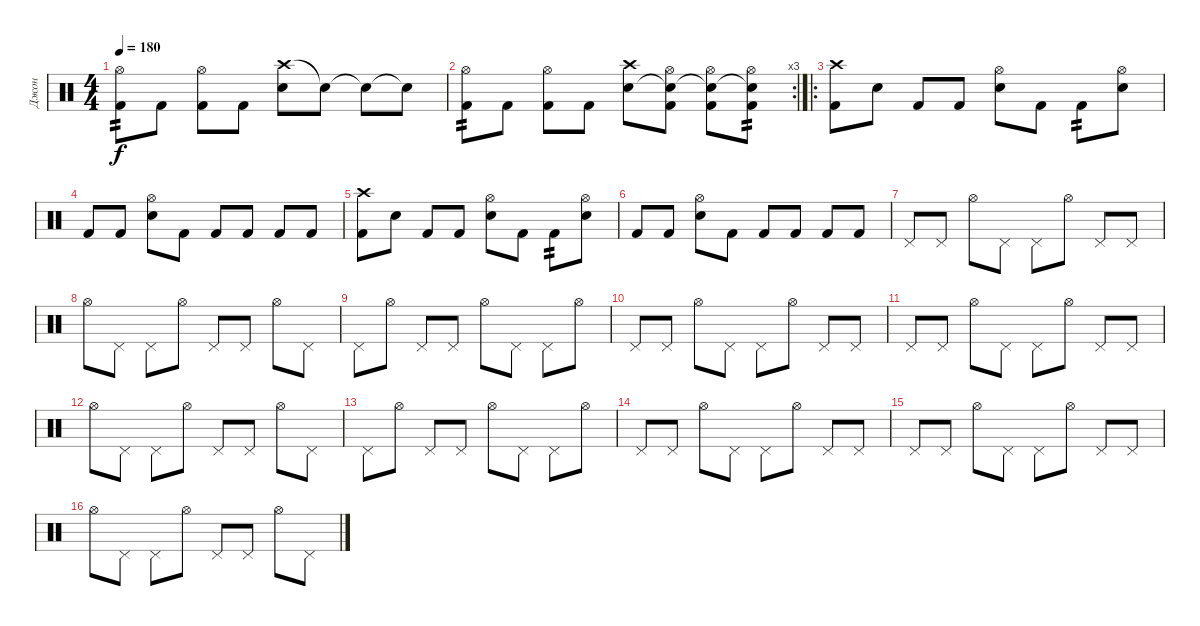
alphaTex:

\track ("Джон" "Джон") {instrument percussion}
\staff {score}
\articulation defaults
\ts (4 4)
\tempo 180
\clef neutral
\ks c
("Hi-Hat (open)" "Kick (hit) 2").8{tp 2 dy f} "Kick (hit) 2".8 ("Hi-Hat (open)" "Kick (hit) 2").8 "Kick (hit) 2".8 ("Crash high (hit)" "Snare (hit) 2").8 "Snare (hit)"{t}.8 "Snare (hit)"{t}.8 "Snare (hit)"{t}.8 |
\rc 3
("Hi-Hat (open)" "Kick (hit) 2").8{tp 2} "Kick (hit) 2".8 ("Hi-Hat (open)" "Kick (hit) 2").8 "Kick (hit) 2".8 ("Crash high (hit)" "Snare (hit) 2").8 ("Hi-Hat (open)" "Snare (hit)"{t} "Kick (hit) 2").8 ("Hi-Hat (open)" "Snare (hit)"{t} "Kick (hit) 2").8 ("Hi-Hat (open)" "Snare (hit)"{t} "Kick (hit) 2").8{tp 2} |
\ro
("Crash high (hit)" "Kick (hit) 2").8 "Snare (hit)".8 "Kick (hit) 2".8 "Kick (hit) 2".8 ("Hi-Hat (open)" "Snare (hit) 2").8 "Kick (hit) 2".8 "Kick (hit) 2".8{tp 2} ("Hi-Hat (open)" "Snare (hit) 2").8 |
"Kick (hit) 2".8 "Kick (hit) 2".8 ("Hi-Hat (open)" "Snare (hit) 2").8 "Kick (hit) 2".8 "Kick (hit) 2".8 "Kick (hit) 2".8 "Kick (hit) 2".8 "Kick (hit) 2".8 |
("Crash high (hit)" "Kick (hit) 2").8 "Snare (hit)".8 "Kick (hit) 2".8 "Kick (hit) 2".8 ("Hi-Hat (open)" "Snare (hit) 2").8 "Kick (hit) 2".8 "Kick (hit) 2".8{tp 2} ("Hi-Hat (open)" "Snare (hit) 2").8 |
"Kick (hit) 2".8 "Kick (hit) 2".8 ("Hi-Hat (open)" "Snare (hit) 2").8 "Kick (hit) 2".8 "Kick (hit) 2".8 "Kick (hit) 2".8 "Kick (hit) 2".8 "Kick (hit) 2".8 |
"Pedal Hi-Hat (hit)".8 "Pedal Hi-Hat (hit)".8 "Hi-Hat (open)".8 "Pedal Hi-Hat (hit)".8 "Pedal Hi-Hat (hit)".8 "Hi-Hat (open)".8 "Pedal Hi-Hat (hit)".8 "Pedal Hi-Hat (hit)".8 |
"Hi-Hat (open)".8 "Pedal Hi-Hat (hit)".8 "Pedal Hi-Hat (hit)".8 "Hi-Hat (open)".8 "Pedal Hi-Hat (hit)".8 "Pedal Hi-Hat (hit)".8 "Hi-Hat (open)".8 "Pedal Hi-Hat (hit)".8 |
"Pedal Hi-Hat (hit)".8 "Hi-Hat (open)".8 "Pedal Hi-Hat (hit)".8 "Pedal Hi-Hat (hit)".8 "Hi-Hat (open)".8 "Pedal Hi-Hat (hit)".8 "Pedal Hi-Hat (hit)".8 "Hi-Hat (open)".8 |
"Pedal Hi-Hat (hit)".8 "Pedal Hi-Hat (hit)".8 "Hi-Hat (open)".8 "Pedal Hi-Hat (hit)".8 "Pedal Hi-Hat (hit)".8 "Hi-Hat (open)".8 "Pedal Hi-Hat (hit)".8 "Pedal Hi-Hat (hit)".8 |
"Pedal Hi-Hat (hit)".8 "Pedal Hi-Hat (hit)".8 "Hi-Hat (open)".8 "Pedal Hi-Hat (hit)".8 "Pedal Hi-Hat (hit)".8 "Hi-Hat (open)".8 "Pedal Hi-Hat (hit)".8 "Pedal Hi-Hat (hit)".8 |
"Hi-Hat (open)".8 "Pedal Hi-Hat (hit)".8 "Pedal Hi-Hat (hit)".8 "Hi-Hat (open)".8 "Pedal Hi-Hat (hit)".8 "Pedal Hi-Hat (hit)".8 "Hi-Hat (open)".8 "Pedal Hi-Hat (hit)".8 |
"Pedal Hi-Hat (hit)".8 "Hi-Hat (open)".8 "Pedal Hi-Hat (hit)".8 "Pedal Hi-Hat (hit)".8 "Hi-Hat (open)".8 "Pedal Hi-Hat (hit)".8 "Pedal Hi-Hat (hit)".8 "Hi-Hat (open)".8 |
"Pedal Hi-Hat (hit)".8 "Pedal Hi-Hat (hit)".8 "Hi-Hat (open)".8 "Pedal Hi-Hat (hit)".8 "Pedal Hi-Hat (hit)".8 "Hi-Hat (open)".8 "Pedal Hi-Hat (hit)".8 "Pedal Hi-Hat (hit)".8 |
"Pedal Hi-Hat (hit)".8 "Pedal Hi-Hat (hit)".8 "Hi-Hat (open)".8 "Pedal Hi-Hat (hit)".8 "Pedal Hi-Hat (hit)".8 "Hi-Hat (open)".8 "Pedal Hi-Hat (hit)".8 "Pedal Hi-Hat (hit)".8 |
"Hi-Hat (open)".8 "Pedal Hi-Hat (hit)".8 "Pedal Hi-Hat (hit)".8 "Hi-Hat (open)".8 "Pedal Hi-Hat (hit)".8 "Pedal Hi-Hat (hit)".8 "Hi-Hat (open)".8 "Pedal Hi-Hat (hit)".8
